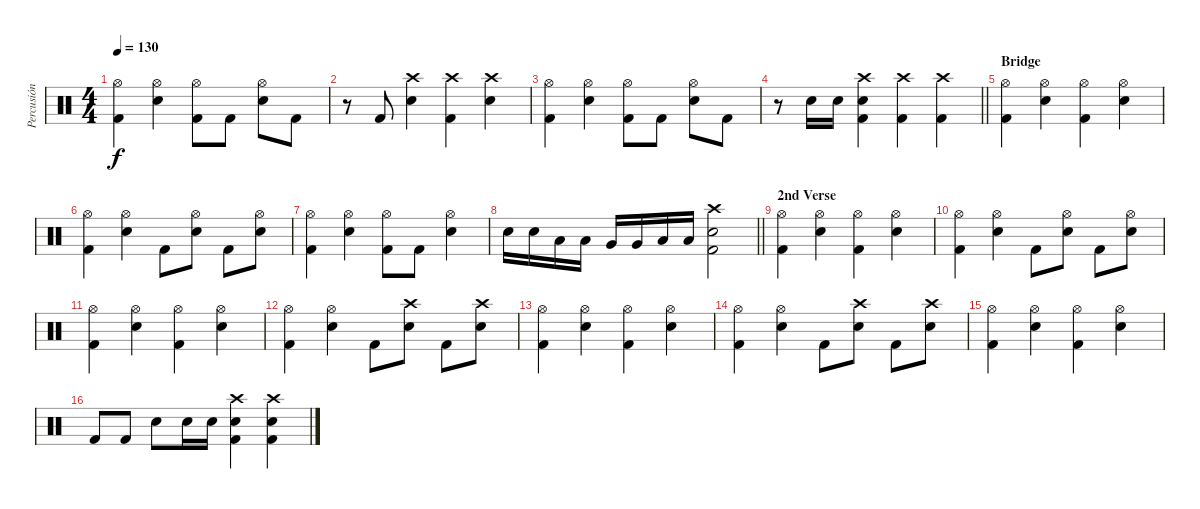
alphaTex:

\track ("Percusión" "Percusión") {instrument percussion}
\staff
\articulation defaults
\ts (4 4)
\tempo 130
\clef neutral
\ks c
("Hi-Hat (open)" "Kick (hit) 2").4{dy f} ("Hi-Hat (open)" "Snare (hit) 2").4 ("Hi-Hat (open)" "Kick (hit) 2").8 "Kick (hit) 2".8 ("Hi-Hat (open)" "Snare (hit) 2").8 "Kick (hit) 2".8 |
r.8 "Kick (hit) 2".8 ("Crash high (hit)" "Snare (hit) 2").4 ("Crash high (hit)" "Kick (hit) 2").4 ("Crash high (hit)" "Snare (hit) 2").4 |
("Hi-Hat (open)" "Kick (hit) 2").4 ("Hi-Hat (open)" "Snare (hit) 2").4 ("Hi-Hat (open)" "Kick (hit) 2").8 "Kick (hit) 2".8 ("Hi-Hat (open)" "Snare (hit) 2").8 "Kick (hit) 2".8 |
\barLineRight lightlight
r.8 "Snare (hit) 2".16 "Snare (hit) 2".16 ("Crash high (hit)" "Snare (hit) 2" "Kick (hit) 2").4 ("Crash high (hit)" "Kick (hit) 2").4 ("Crash high (hit)" "Kick (hit) 2").4 |
\section ("" "Bridge")
("Hi-Hat (open)" "Kick (hit) 2").4 ("Hi-Hat (open)" "Snare (hit) 2").4 ("Hi-Hat (open)" "Kick (hit) 2").4 ("Hi-Hat (open)" "Snare (hit) 2").4 |
("Hi-Hat (open)" "Kick (hit) 2").4 ("Hi-Hat (open)" "Snare (hit) 2").4 "Kick (hit) 2".8 ("Hi-Hat (open)" "Snare (hit) 2").8 "Kick (hit) 2".8 ("Hi-Hat (open)" "Snare (hit) 2").8 |
("Hi-Hat (open)" "Kick (hit) 2").4 ("Hi-Hat (open)" "Snare (hit) 2").4 ("Hi-Hat (open)" "Kick (hit) 2").8 "Kick (hit) 2".8 ("Hi-Hat (open)" "Snare (hit) 2").4 |
\barLineRight lightlight "Snare (hit) 2".16 "Snare (hit) 2".16 "Low Tom (hit)".16 "Low Tom (hit)".16 "Very Low Tom (hit)".16 "Very Low Tom (hit)".16 "Low Floor Tom (hit)".16 "Low Floor Tom (hit)".16
("Crash high (hit)" "Snare (hit) 2" "Kick (hit) 2").2 |
\section ("" "2nd Verse")
("Hi-Hat (open)" "Kick (hit) 2").4 ("Hi-Hat (open)" "Snare (hit) 2").4 ("Hi-Hat (open)" "Kick (hit) 2").4 ("Hi-Hat (open)" "Snare (hit) 2").4 |
("Hi-Hat (open)" "Kick (hit) 2").4 ("Hi-Hat (open)" "Snare (hit) 2").4 "Kick (hit) 2".8 ("Hi-Hat (open)" "Snare (hit) 2").8 "Kick (hit) 2".8 ("Hi-Hat (open)" "Snare (hit) 2").8 |
("Hi-Hat (open)" "Kick (hit) 2").4 ("Hi-Hat (open)" "Snare (hit) 2").4 ("Hi-Hat (open)" "Kick (hit) 2").4 ("Hi-Hat (open)" "Snare (hit) 2").4 |
("Hi-Hat (open)" "Kick (hit) 2").4 ("Hi-Hat (open)" "Snare (hit) 2").4 "Kick (hit) 2".8 ("Crash high (hit)" "Snare (hit) 2").8 "Kick (hit) 2".8 ("Crash high (hit)" "Snare (hit) 2").8 |
("Hi-Hat (open)" "Kick (hit) 2").4 ("Hi-Hat (open)" "Snare (hit) 2").4 ("Hi-Hat (open)" "Kick (hit) 2").4 ("Hi-Hat (open)" "Snare (hit) 2").4 |
("Hi-Hat (open)" "Kick (hit) 2").4 ("Hi-Hat (open)" "Snare (hit) 2").4 "Kick (hit) 2".8 ("Crash high (hit)" "Snare (hit) 2").8 "Kick (hit) 2".8 ("Crash high (hit)" "Snare (hit) 2").8 |
("Hi-Hat (open)" "Kick (hit) 2").4 ("Hi-Hat (open)" "Snare (hit) 2").4 ("Hi-Hat (open)" "Kick (hit) 2").4 ("Hi-Hat (open)" "Snare (hit) 2").4 |
"Kick (hit) 2".8 "Kick (hit) 2".8 "Snare (hit) 2".8 "Snare (hit) 2".16 "Snare (hit) 2".16 ("Crash high (hit)" "Snare (hit) 2" "Kick (hit) 2").4 ("Crash high (hit)" "Snare (hit) 2" "Kick (hit) 2").4
